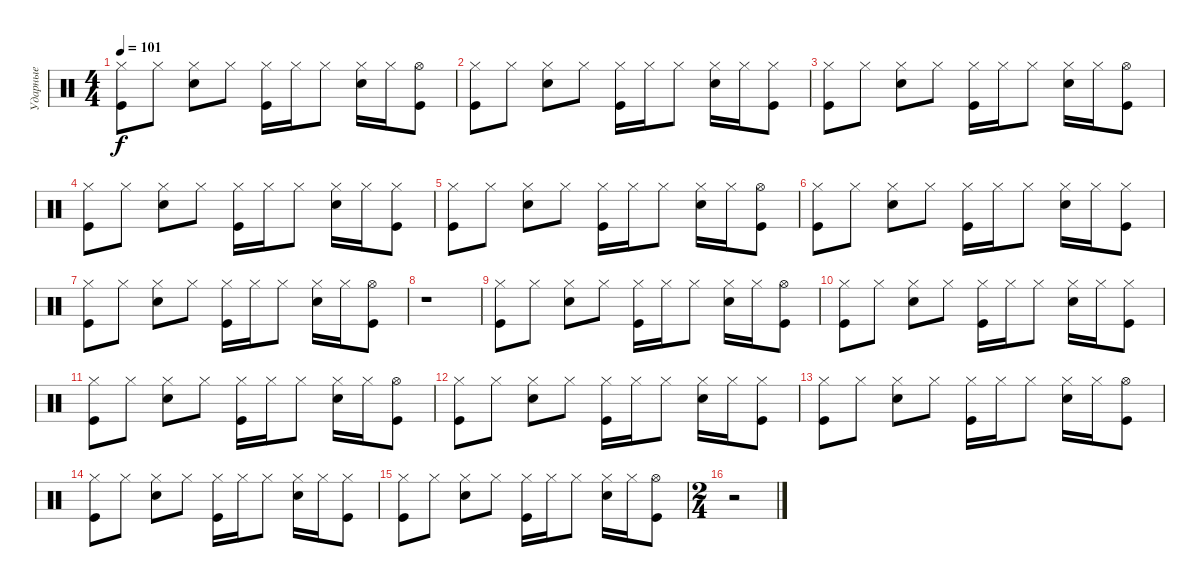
\track ("Ударные" "Ударные") {instrument percussion}
\staff {score}
\articulation defaults
\ts (4 4)
\tempo 101
\clef neutral
\ks c
("Hi-Hat (closed)" "Kick (hit)").8{dy f} "Hi-Hat (closed)".8 ("Hi-Hat (closed)" "Snare (hit) 2").8 "Hi-Hat (closed)".8 ("Hi-Hat (closed)" "Kick (hit)").16 "Hi-Hat (closed)".16 "Hi-Hat (closed)".8 ("Snare (hit) 2" "Hi-Hat (closed)").16 "Hi-Hat (closed)".16 ("Hi-Hat (open)" "Kick (hit)").8 |
("Hi-Hat (closed)" "Kick (hit)").8 "Hi-Hat (closed)".8 ("Hi-Hat (closed)" "Snare (hit) 2").8 "Hi-Hat (closed)".8 ("Hi-Hat (closed)" "Kick (hit)").16 "Hi-Hat (closed)".16 "Hi-Hat (closed)".8 ("Snare (hit) 2" "Hi-Hat (closed)").16 "Hi-Hat (closed)".16 ("Hi-Hat (closed)" "Kick (hit)").8 |
("Hi-Hat (closed)" "Kick (hit)").8 "Hi-Hat (closed)".8 ("Hi-Hat (closed)" "Snare (hit) 2").8 "Hi-Hat (closed)".8 ("Hi-Hat (closed)" "Kick (hit)").16 "Hi-Hat (closed)".16 "Hi-Hat (closed)".8 ("Snare (hit) 2" "Hi-Hat (closed)").16 "Hi-Hat (closed)".16 ("Hi-Hat (open)" "Kick (hit)").8 |
("Hi-Hat (closed)" "Kick (hit)").8 "Hi-Hat (closed)".8 ("Hi-Hat (closed)" "Snare (hit) 2").8 "Hi-Hat (closed)".8 ("Hi-Hat (closed)" "Kick (hit)").16 "Hi-Hat (closed)".16 "Hi-Hat (closed)".8 ("Snare (hit) 2" "Hi-Hat (closed)").16 "Hi-Hat (closed)".16 ("Hi-Hat (closed)" "Kick (hit)").8 |
("Hi-Hat (closed)" "Kick (hit)").8 "Hi-Hat (closed)".8 ("Hi-Hat (closed)" "Snare (hit) 2").8 "Hi-Hat (closed)".8 ("Hi-Hat (closed)" "Kick (hit)").16 "Hi-Hat (closed)".16 "Hi-Hat (closed)".8 ("Snare (hit) 2" "Hi-Hat (closed)").16 "Hi-Hat (closed)".16 ("Hi-Hat (open)" "Kick (hit)").8 |
("Hi-Hat (closed)" "Kick (hit)").8 "Hi-Hat (closed)".8 ("Hi-Hat (closed)" "Snare (hit) 2").8 "Hi-Hat (closed)".8 ("Hi-Hat (closed)" "Kick (hit)").16 "Hi-Hat (closed)".16 "Hi-Hat (closed)".8 ("Snare (hit) 2" "Hi-Hat (closed)").16 "Hi-Hat (closed)".16 ("Hi-Hat (closed)" "Kick (hit)").8 |
("Hi-Hat (closed)" "Kick (hit)").8 "Hi-Hat (closed)".8 ("Hi-Hat (closed)" "Snare (hit) 2").8 "Hi-Hat (closed)".8 ("Hi-Hat (closed)" "Kick (hit)").16 "Hi-Hat (closed)".16 "Hi-Hat (closed)".8 ("Snare (hit) 2" "Hi-Hat (closed)").16 "Hi-Hat (closed)".16 ("Hi-Hat (open)" "Kick (hit)").8 |
r.1 |
("Hi-Hat (closed)" "Kick (hit)").8 "Hi-Hat (closed)".8 ("Hi-Hat (closed)" "Snare (hit) 2").8 "Hi-Hat (closed)".8 ("Hi-Hat (closed)" "Kick (hit)").16 "Hi-Hat (closed)".16 "Hi-Hat (closed)".8 ("Snare (hit) 2" "Hi-Hat (closed)").16 "Hi-Hat (closed)".16 ("Hi-Hat (open)" "Kick (hit)").8 |
("Hi-Hat (closed)" "Kick (hit)").8 "Hi-Hat (closed)".8 ("Hi-Hat (closed)" "Snare (hit) 2").8 "Hi-Hat (closed)".8 ("Hi-Hat (closed)" "Kick (hit)").16 "Hi-Hat (closed)".16 "Hi-Hat (closed)".8 ("Snare (hit) 2" "Hi-Hat (closed)").16 "Hi-Hat (closed)".16 ("Hi-Hat (closed)" "Kick (hit)").8 |
("Hi-Hat (closed)" "Kick (hit)").8 "Hi-Hat (closed)".8 ("Hi-Hat (closed)" "Snare (hit) 2").8 "Hi-Hat (closed)".8 ("Hi-Hat (closed)" "Kick (hit)").16 "Hi-Hat (closed)".16 "Hi-Hat (closed)".8 ("Snare (hit) 2" "Hi-Hat (closed)").16 "Hi-Hat (closed)".16 ("Hi-Hat (open)" "Kick (hit)").8 |
("Hi-Hat (closed)" "Kick (hit)").8 "Hi-Hat (closed)".8 ("Hi-Hat (closed)" "Snare (hit) 2").8 "Hi-Hat (closed)".8 ("Hi-Hat (closed)" "Kick (hit)").16 "Hi-Hat (closed)".16 "Hi-Hat (closed)".8 ("Snare (hit) 2" "Hi-Hat (closed)").16 "Hi-Hat (closed)".16 ("Hi-Hat (closed)" "Kick (hit)").8 |
("Hi-Hat (closed)" "Kick (hit)").8 "Hi-Hat (closed)".8 ("Hi-Hat (closed)" "Snare (hit) 2").8 "Hi-Hat (closed)".8 ("Hi-Hat (closed)" "Kick (hit)").16 "Hi-Hat (closed)".16 "Hi-Hat (closed)".8 ("Snare (hit) 2" "Hi-Hat (closed)").16 "Hi-Hat (closed)".16 ("Hi-Hat (open)" "Kick (hit)").8 |
("Hi-Hat (closed)" "Kick (hit)").8 "Hi-Hat (closed)".8 ("Hi-Hat (closed)" "Snare (hit) 2").8 "Hi-Hat (closed)".8 ("Hi-Hat (closed)" "Kick (hit)").16 "Hi-Hat (closed)".16 "Hi-Hat (closed)".8 ("Snare (hit) 2" "Hi-Hat (closed)").16 "Hi-Hat (closed)".16 ("Hi-Hat (closed)" "Kick (hit)").8 |
("Hi-Hat (closed)" "Kick (hit)").8 "Hi-Hat (closed)".8 ("Hi-Hat (closed)" "Snare (hit) 2").8 "Hi-Hat (closed)".8 ("Hi-Hat (closed)" "Kick (hit)").16 "Hi-Hat (closed)".16 "Hi-Hat (closed)".8 ("Snare (hit) 2" "Hi-Hat (closed)").16 "Hi-Hat (closed)".16 ("Hi-Hat (open)" "Kick (hit)").8 |
\ts (2 4)
r.2
